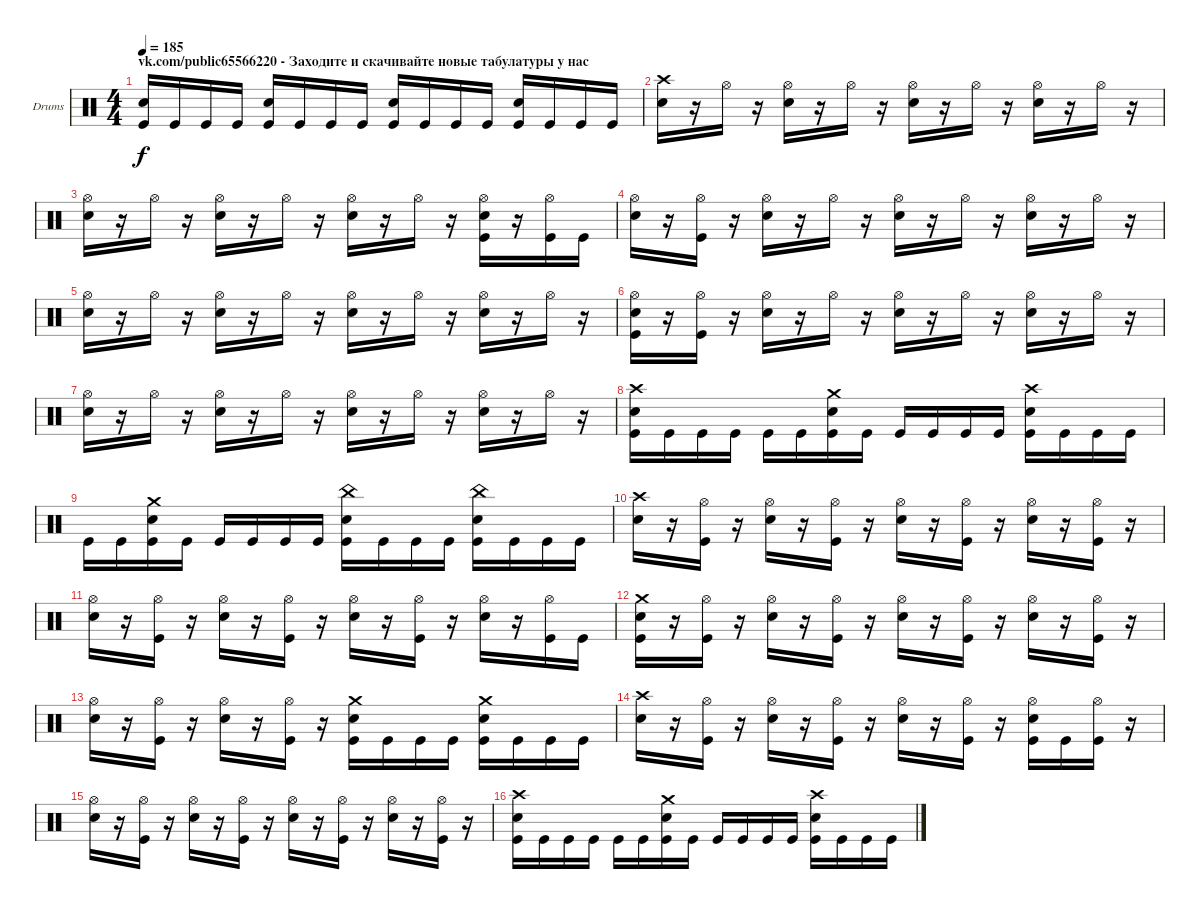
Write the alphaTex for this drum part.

\bracketExtendMode groupsimilarinstruments
\firstSystemTrackNameOrientation horizontal
\otherSystemsTrackNameOrientation horizontal
\track ("Drumkit" "Drums") {instrument percussion}
\staff {score}
\articulation defaults
\ts (4 4)
\section ("" "vk.com/public65566220 - Заходите и скачивайте новые табулатуры у нас")
\tempo 185
\clef neutral
\ks c
("Snare (hit) 2" "Kick (hit)").16{dy f} "Kick (hit)".16 "Kick (hit)".16 "Kick (hit)".16 ("Snare (hit) 2" "Kick (hit)").16 "Kick (hit)".16 "Kick (hit)".16 "Kick (hit)".16 ("Snare (hit) 2" "Kick (hit)").16 "Kick (hit)".16 "Kick (hit)".16 "Kick (hit)".16 ("Snare (hit) 2" "Kick (hit)").16 "Kick (hit)".16 "Kick (hit)".16 "Kick (hit)".16 |
("Crash high (hit)" "Snare (hit) 2").16 r.16 "Hi-Hat (open)".16 r.16 ("Hi-Hat (open)" "Snare (hit) 2").16 r.16 "Hi-Hat (open)".16 r.16 ("Hi-Hat (open)" "Snare (hit) 2").16 r.16 "Hi-Hat (open)".16 r.16 ("Hi-Hat (open)" "Snare (hit) 2").16 r.16 "Hi-Hat (open)".16 r.16 |
("Hi-Hat (open)" "Snare (hit) 2").16 r.16 "Hi-Hat (open)".16 r.16 ("Hi-Hat (open)" "Snare (hit) 2").16 r.16 "Hi-Hat (open)".16 r.16 ("Hi-Hat (open)" "Snare (hit) 2").16 r.16 "Hi-Hat (open)".16 r.16 ("Hi-Hat (open)" "Snare (hit) 2" "Kick (hit)").16 r.16 ("Hi-Hat (open)" "Kick (hit)").16 "Kick (hit)".16 |
("Hi-Hat (open)" "Snare (hit) 2").16 r.16 ("Hi-Hat (open)" "Kick (hit)").16 r.16 ("Hi-Hat (open)" "Snare (hit) 2").16 r.16 "Hi-Hat (open)".16 r.16 ("Hi-Hat (open)" "Snare (hit) 2").16 r.16 "Hi-Hat (open)".16 r.16 ("Hi-Hat (open)" "Snare (hit) 2").16 r.16 "Hi-Hat (open)".16 r.16 |
("Hi-Hat (open)" "Snare (hit) 2").16 r.16 "Hi-Hat (open)".16 r.16 ("Hi-Hat (open)" "Snare (hit) 2").16 r.16 "Hi-Hat (open)".16 r.16 ("Hi-Hat (open)" "Snare (hit) 2").16 r.16 "Hi-Hat (open)".16 r.16 ("Hi-Hat (open)" "Snare (hit) 2").16 r.16 "Hi-Hat (open)".16 r.16 |
("Hi-Hat (open)" "Snare (hit) 2" "Kick (hit)").16 r.16 ("Hi-Hat (open)" "Kick (hit)").16 r.16 ("Hi-Hat (open)" "Snare (hit) 2").16 r.16 "Hi-Hat (open)".16 r.16 ("Hi-Hat (open)" "Snare (hit) 2").16 r.16 "Hi-Hat (open)".16 r.16 ("Hi-Hat (open)" "Snare (hit) 2").16 r.16 "Hi-Hat (open)".16 r.16 |
("Hi-Hat (open)" "Snare (hit) 2").16 r.16 "Hi-Hat (open)".16 r.16 ("Hi-Hat (open)" "Snare (hit) 2").16 r.16 "Hi-Hat (open)".16 r.16 ("Hi-Hat (open)" "Snare (hit) 2").16 r.16 "Hi-Hat (open)".16 r.16 ("Hi-Hat (open)" "Snare (hit) 2").16 r.16 "Hi-Hat (open)".16 r.16 |
("Crash high (hit)" "Snare (hit) 2" "Kick (hit)").16 "Kick (hit)".16 "Kick (hit)".16 "Kick (hit)".16 "Kick (hit)".16 "Kick (hit)".16 ("Crash medium (hit)" "Snare (hit) 2" "Kick (hit)").16 "Kick (hit)".16 "Kick (hit)".16 "Kick (hit)".16 "Kick (hit)".16 "Kick (hit)".16 ("Crash high (hit)" "Snare (hit) 2" "Kick (hit)").16 "Kick (hit)".16 "Kick (hit)".16 "Kick (hit)".16 |
"Kick (hit)".16 "Kick (hit)".16 ("Crash medium (hit)" "Snare (hit) 2" "Kick (hit)").16 "Kick (hit)".16 "Kick (hit)".16 "Kick (hit)".16 "Kick (hit)".16 "Kick (hit)".16 ("China (hit)" "Snare (hit) 2" "Kick (hit)").16 "Kick (hit)".16 "Kick (hit)".16 "Kick (hit)".16 ("China (hit)" "Snare (hit) 2" "Kick (hit)").16 "Kick (hit)".16 "Kick (hit)".16 "Kick (hit)".16 |
("Crash high (hit)" "Snare (hit) 2").16 r.16 ("Hi-Hat (open)" "Kick (hit)").16 r.16 ("Hi-Hat (open)" "Snare (hit) 2").16 r.16 ("Hi-Hat (open)" "Kick (hit)").16 r.16 ("Hi-Hat (open)" "Snare (hit) 2").16 r.16 ("Hi-Hat (open)" "Kick (hit)").16 r.16 ("Hi-Hat (open)" "Snare (hit) 2").16 r.16 ("Hi-Hat (open)" "Kick (hit)").16 r.16 |
("Hi-Hat (open)" "Snare (hit) 2").16 r.16 ("Hi-Hat (open)" "Kick (hit)").16 r.16 ("Hi-Hat (open)" "Snare (hit) 2").16 r.16 ("Hi-Hat (open)" "Kick (hit)").16 r.16 ("Hi-Hat (open)" "Snare (hit) 2").16 r.16 ("Hi-Hat (open)" "Kick (hit)").16 r.16 ("Hi-Hat (open)" "Snare (hit) 2").16 r.16 ("Hi-Hat (open)" "Kick (hit)").16 "Kick (hit)".16 |
("Crash medium (hit)" "Snare (hit) 2" "Kick (hit)").16 r.16 ("Hi-Hat (open)" "Kick (hit)").16 r.16 ("Hi-Hat (open)" "Snare (hit) 2").16 r.16 ("Hi-Hat (open)" "Kick (hit)").16 r.16 ("Hi-Hat (open)" "Snare (hit) 2").16 r.16 ("Hi-Hat (open)" "Kick (hit)").16 r.16 ("Hi-Hat (open)" "Snare (hit) 2").16 r.16 ("Hi-Hat (open)" "Kick (hit)").16 r.16 |
("Hi-Hat (open)" "Snare (hit) 2").16 r.16 ("Hi-Hat (open)" "Kick (hit)").16 r.16 ("Hi-Hat (open)" "Snare (hit) 2").16 r.16 ("Hi-Hat (open)" "Kick (hit)").16 r.16 ("Crash medium (hit)" "Snare (hit) 2" "Kick (hit)").16 "Kick (hit)".16 "Kick (hit)".16 "Kick (hit)".16 ("Crash medium (hit)" "Snare (hit) 2" "Kick (hit)").16 "Kick (hit)".16 "Kick (hit)".16 "Kick (hit)".16 |
("Crash high (hit)" "Snare (hit) 2").16 r.16 ("Hi-Hat (open)" "Kick (hit)").16 r.16 ("Hi-Hat (open)" "Snare (hit) 2").16 r.16 ("Hi-Hat (open)" "Kick (hit)").16 r.16 ("Hi-Hat (open)" "Snare (hit) 2").16 r.16 ("Hi-Hat (open)" "Kick (hit)").16 r.16 ("Hi-Hat (open)" "Snare (hit) 2" "Kick (hit)").16 "Kick (hit)".16 ("Hi-Hat (open)" "Kick (hit)").16 r.16 |
("Hi-Hat (open)" "Snare (hit) 2").16 r.16 ("Hi-Hat (open)" "Kick (hit)").16 r.16 ("Hi-Hat (open)" "Snare (hit) 2").16 r.16 ("Hi-Hat (open)" "Kick (hit)").16 r.16 ("Hi-Hat (open)" "Snare (hit) 2").16 r.16 ("Hi-Hat (open)" "Kick (hit)").16 r.16 ("Hi-Hat (open)" "Snare (hit) 2").16 r.16 ("Hi-Hat (open)" "Kick (hit)").16 r.16 |
("Crash high (hit)" "Snare (hit) 2" "Kick (hit)").16 "Kick (hit)".16 "Kick (hit)".16 "Kick (hit)".16 "Kick (hit)".16 "Kick (hit)".16 ("Crash medium (hit)" "Snare (hit) 2" "Kick (hit)").16 "Kick (hit)".16 "Kick (hit)".16 "Kick (hit)".16 "Kick (hit)".16 "Kick (hit)".16 ("Crash high (hit)" "Snare (hit) 2" "Kick (hit)").16 "Kick (hit)".16 "Kick (hit)".16 "Kick (hit)".16
